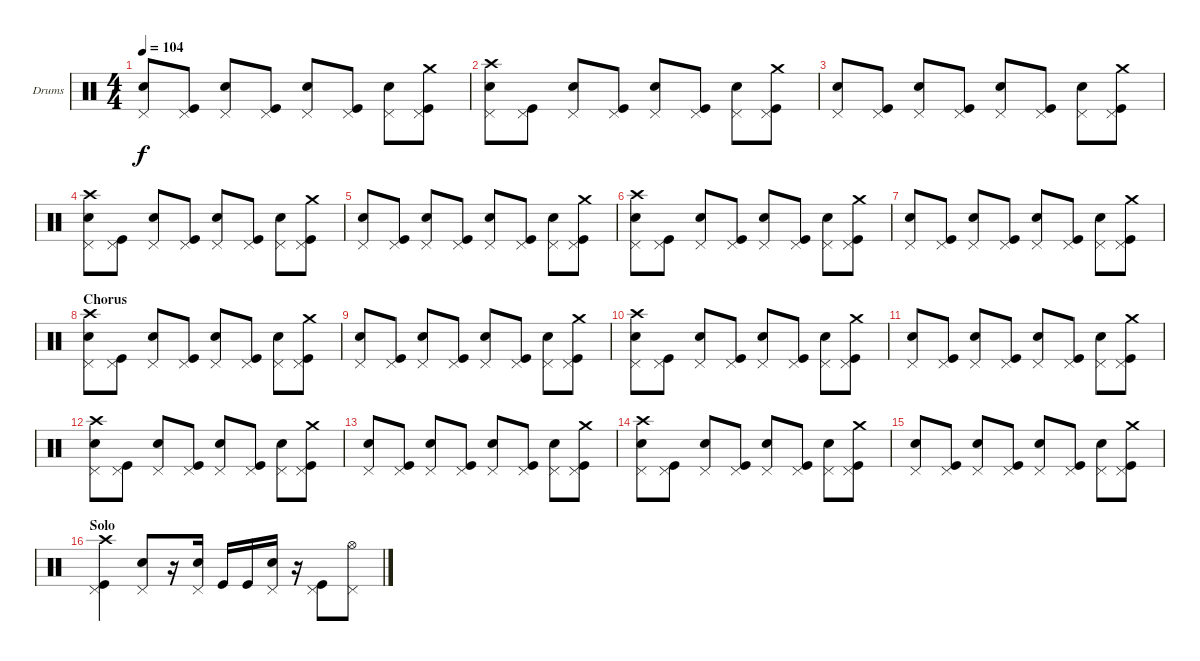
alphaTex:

\defaultSystemsLayout 4
\bracketExtendMode groupsimilarinstruments
\firstSystemTrackNameOrientation horizontal
\otherSystemsTrackNameOrientation horizontal
\track ("Drumkit" "Drums") {instrument percussion}
\staff {score}
\articulation defaults
\ts (4 4)
\tempo 104
\clef neutral
\ks c
("Pedal Hi-Hat (hit)" "Snare (hit) 2").8{dy f} ("Pedal Hi-Hat (hit)" "Kick (hit)").8 ("Pedal Hi-Hat (hit)" "Snare (hit) 2").8 ("Pedal Hi-Hat (hit)" "Kick (hit)").8 ("Pedal Hi-Hat (hit)" "Snare (hit) 2").8 ("Pedal Hi-Hat (hit)" "Kick (hit)").8 ("Pedal Hi-Hat (hit)" "Snare (hit) 2").8 ("Pedal Hi-Hat (hit)" "Kick (hit)" "Crash medium (hit)").8 |
("Pedal Hi-Hat (hit)" "Snare (hit) 2" "Crash high (hit)").8 ("Pedal Hi-Hat (hit)" "Kick (hit)").8 ("Pedal Hi-Hat (hit)" "Snare (hit) 2").8 ("Pedal Hi-Hat (hit)" "Kick (hit)").8 ("Pedal Hi-Hat (hit)" "Snare (hit) 2").8 ("Pedal Hi-Hat (hit)" "Kick (hit)").8 ("Pedal Hi-Hat (hit)" "Snare (hit) 2").8 ("Pedal Hi-Hat (hit)" "Kick (hit)" "Crash medium (hit)").8 |
("Pedal Hi-Hat (hit)" "Snare (hit) 2").8 ("Pedal Hi-Hat (hit)" "Kick (hit)").8 ("Pedal Hi-Hat (hit)" "Snare (hit) 2").8 ("Pedal Hi-Hat (hit)" "Kick (hit)").8 ("Pedal Hi-Hat (hit)" "Snare (hit) 2").8 ("Pedal Hi-Hat (hit)" "Kick (hit)").8 ("Pedal Hi-Hat (hit)" "Snare (hit) 2").8 ("Pedal Hi-Hat (hit)" "Kick (hit)" "Crash medium (hit)").8 |
("Pedal Hi-Hat (hit)" "Snare (hit) 2" "Crash high (hit)").8 ("Pedal Hi-Hat (hit)" "Kick (hit)").8 ("Pedal Hi-Hat (hit)" "Snare (hit) 2").8 ("Pedal Hi-Hat (hit)" "Kick (hit)").8 ("Pedal Hi-Hat (hit)" "Snare (hit) 2").8 ("Pedal Hi-Hat (hit)" "Kick (hit)").8 ("Pedal Hi-Hat (hit)" "Snare (hit) 2").8 ("Pedal Hi-Hat (hit)" "Kick (hit)" "Crash medium (hit)").8 |
("Pedal Hi-Hat (hit)" "Snare (hit) 2").8 ("Pedal Hi-Hat (hit)" "Kick (hit)").8 ("Pedal Hi-Hat (hit)" "Snare (hit) 2").8 ("Pedal Hi-Hat (hit)" "Kick (hit)").8 ("Pedal Hi-Hat (hit)" "Snare (hit) 2").8 ("Pedal Hi-Hat (hit)" "Kick (hit)").8 ("Pedal Hi-Hat (hit)" "Snare (hit) 2").8 ("Pedal Hi-Hat (hit)" "Kick (hit)" "Crash medium (hit)").8 |
("Pedal Hi-Hat (hit)" "Snare (hit) 2" "Crash high (hit)").8 ("Pedal Hi-Hat (hit)" "Kick (hit)").8 ("Pedal Hi-Hat (hit)" "Snare (hit) 2").8 ("Pedal Hi-Hat (hit)" "Kick (hit)").8 ("Pedal Hi-Hat (hit)" "Snare (hit) 2").8 ("Pedal Hi-Hat (hit)" "Kick (hit)").8 ("Pedal Hi-Hat (hit)" "Snare (hit) 2").8 ("Pedal Hi-Hat (hit)" "Kick (hit)" "Crash medium (hit)").8 |
("Pedal Hi-Hat (hit)" "Snare (hit) 2").8 ("Pedal Hi-Hat (hit)" "Kick (hit)").8 ("Pedal Hi-Hat (hit)" "Snare (hit) 2").8 ("Pedal Hi-Hat (hit)" "Kick (hit)").8 ("Pedal Hi-Hat (hit)" "Snare (hit) 2").8 ("Pedal Hi-Hat (hit)" "Kick (hit)").8 ("Pedal Hi-Hat (hit)" "Snare (hit) 2").8 ("Pedal Hi-Hat (hit)" "Kick (hit)" "Crash medium (hit)").8 |
\section ("" "Chorus")
("Pedal Hi-Hat (hit)" "Snare (hit) 2" "Crash high (hit)").8 ("Pedal Hi-Hat (hit)" "Kick (hit)").8 ("Pedal Hi-Hat (hit)" "Snare (hit) 2").8 ("Pedal Hi-Hat (hit)" "Kick (hit)").8 ("Pedal Hi-Hat (hit)" "Snare (hit) 2").8 ("Pedal Hi-Hat (hit)" "Kick (hit)").8 ("Pedal Hi-Hat (hit)" "Snare (hit) 2").8 ("Pedal Hi-Hat (hit)" "Kick (hit)" "Crash medium (hit)").8 |
("Pedal Hi-Hat (hit)" "Snare (hit) 2").8 ("Pedal Hi-Hat (hit)" "Kick (hit)").8 ("Pedal Hi-Hat (hit)" "Snare (hit) 2").8 ("Pedal Hi-Hat (hit)" "Kick (hit)").8 ("Pedal Hi-Hat (hit)" "Snare (hit) 2").8 ("Pedal Hi-Hat (hit)" "Kick (hit)").8 ("Pedal Hi-Hat (hit)" "Snare (hit) 2").8 ("Pedal Hi-Hat (hit)" "Kick (hit)" "Crash medium (hit)").8 |
("Pedal Hi-Hat (hit)" "Snare (hit) 2" "Crash high (hit)").8 ("Pedal Hi-Hat (hit)" "Kick (hit)").8 ("Pedal Hi-Hat (hit)" "Snare (hit) 2").8 ("Pedal Hi-Hat (hit)" "Kick (hit)").8 ("Pedal Hi-Hat (hit)" "Snare (hit) 2").8 ("Pedal Hi-Hat (hit)" "Kick (hit)").8 ("Pedal Hi-Hat (hit)" "Snare (hit) 2").8 ("Pedal Hi-Hat (hit)" "Kick (hit)" "Crash medium (hit)").8 |
("Pedal Hi-Hat (hit)" "Snare (hit) 2").8 ("Pedal Hi-Hat (hit)" "Kick (hit)").8 ("Pedal Hi-Hat (hit)" "Snare (hit) 2").8 ("Pedal Hi-Hat (hit)" "Kick (hit)").8 ("Pedal Hi-Hat (hit)" "Snare (hit) 2").8 ("Pedal Hi-Hat (hit)" "Kick (hit)").8 ("Pedal Hi-Hat (hit)" "Snare (hit) 2").8 ("Pedal Hi-Hat (hit)" "Kick (hit)" "Crash medium (hit)").8 |
("Pedal Hi-Hat (hit)" "Snare (hit) 2" "Crash high (hit)").8 ("Pedal Hi-Hat (hit)" "Kick (hit)").8 ("Pedal Hi-Hat (hit)" "Snare (hit) 2").8 ("Pedal Hi-Hat (hit)" "Kick (hit)").8 ("Pedal Hi-Hat (hit)" "Snare (hit) 2").8 ("Pedal Hi-Hat (hit)" "Kick (hit)").8 ("Pedal Hi-Hat (hit)" "Snare (hit) 2").8 ("Pedal Hi-Hat (hit)" "Kick (hit)" "Crash medium (hit)").8 |
("Pedal Hi-Hat (hit)" "Snare (hit) 2").8 ("Pedal Hi-Hat (hit)" "Kick (hit)").8 ("Pedal Hi-Hat (hit)" "Snare (hit) 2").8 ("Pedal Hi-Hat (hit)" "Kick (hit)").8 ("Pedal Hi-Hat (hit)" "Snare (hit) 2").8 ("Pedal Hi-Hat (hit)" "Kick (hit)").8 ("Pedal Hi-Hat (hit)" "Snare (hit) 2").8 ("Pedal Hi-Hat (hit)" "Kick (hit)" "Crash medium (hit)").8 |
("Pedal Hi-Hat (hit)" "Snare (hit) 2" "Crash high (hit)").8 ("Pedal Hi-Hat (hit)" "Kick (hit)").8 ("Pedal Hi-Hat (hit)" "Snare (hit) 2").8 ("Pedal Hi-Hat (hit)" "Kick (hit)").8 ("Pedal Hi-Hat (hit)" "Snare (hit) 2").8 ("Pedal Hi-Hat (hit)" "Kick (hit)").8 ("Pedal Hi-Hat (hit)" "Snare (hit) 2").8 ("Pedal Hi-Hat (hit)" "Kick (hit)" "Crash medium (hit)").8 |
("Pedal Hi-Hat (hit)" "Snare (hit) 2").8 ("Pedal Hi-Hat (hit)" "Kick (hit)").8 ("Pedal Hi-Hat (hit)" "Snare (hit) 2").8 ("Pedal Hi-Hat (hit)" "Kick (hit)").8 ("Pedal Hi-Hat (hit)" "Snare (hit) 2").8 ("Pedal Hi-Hat (hit)" "Kick (hit)").8 ("Pedal Hi-Hat (hit)" "Snare (hit) 2").8 ("Pedal Hi-Hat (hit)" "Kick (hit)" "Crash medium (hit)").8 |
\section ("" "Solo")
("Pedal Hi-Hat (hit)" "Crash high (hit)" "Kick (hit)").4 ("Pedal Hi-Hat (hit)" "Snare (hit) 2").8 r.16 ("Pedal Hi-Hat (hit)" "Snare (hit) 2").16 "Kick (hit)".16 "Kick (hit)".16 ("Pedal Hi-Hat (hit)" "Snare (hit) 2").16 r.16 ("Pedal Hi-Hat (hit)" "Kick (hit)").8 ("Pedal Hi-Hat (hit)" "Hi-Hat (open)").8
